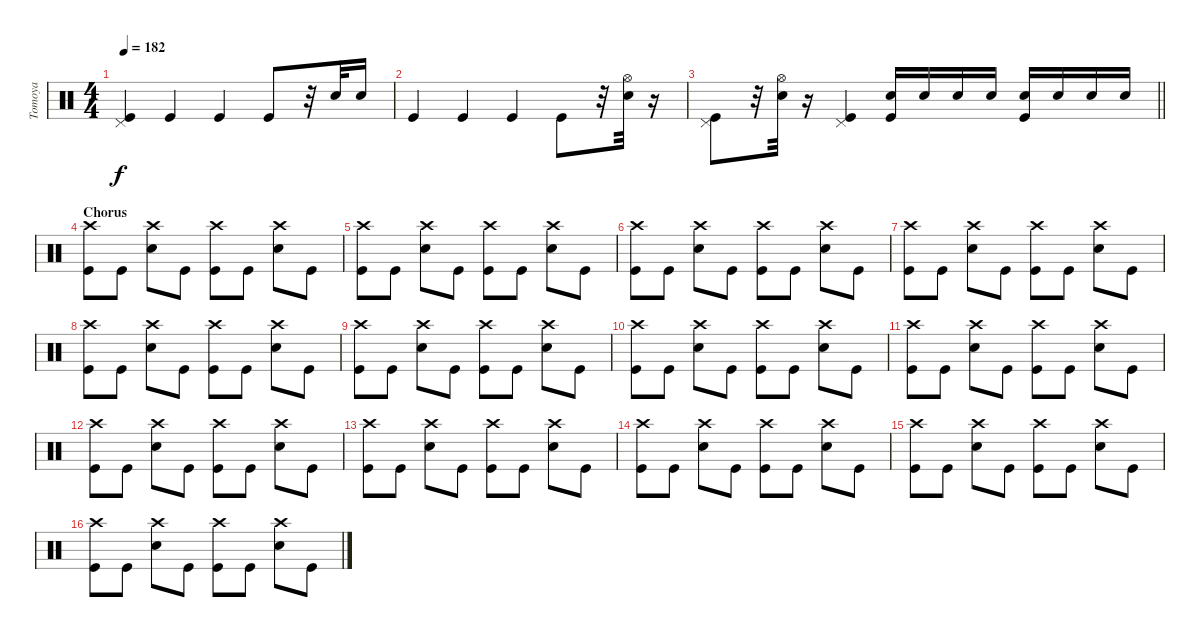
\track ("Tomoya" "Tomoya") {instrument percussion}
\staff {score}
\articulation defaults
\ts (4 4)
\tempo 182
\clef neutral
\ks c
("Pedal Hi-Hat (hit)" "Kick (hit)").4{dy f} "Kick (hit)".4 "Kick (hit)".4 "Kick (hit)".8 r.32 "Snare (hit) 2".32 "Snare (hit) 2".16 |
"Kick (hit)".4 "Kick (hit)".4 "Kick (hit)".4 "Kick (hit)".8 r.32 ("Hi-Hat (open)" "Snare (hit) 2").32 r.16 |
\barLineRight lightlight
("Pedal Hi-Hat (hit)" "Kick (hit)").8 r.32 ("Hi-Hat (open)" "Snare (hit) 2").32 r.16 ("Pedal Hi-Hat (hit)" "Kick (hit)").4 ("Snare (hit) 2" "Kick (hit)").16 "Snare (hit) 2".16 "Snare (hit) 2".16 "Snare (hit) 2".16 ("Snare (hit) 2" "Kick (hit)").16 "Snare (hit) 2".16 "Snare (hit) 2".16 "Snare (hit) 2".16 |
\section ("" "Chorus")
("Crash high (hit)" "Kick (hit)").8 "Kick (hit)".8 ("Crash high (hit)" "Snare (hit) 2").8 "Kick (hit)".8 ("Crash high (hit)" "Kick (hit)").8 "Kick (hit)".8 ("Crash high (hit)" "Snare (hit) 2").8 "Kick (hit)".8 |
("Crash high (hit)" "Kick (hit)").8 "Kick (hit)".8 ("Crash high (hit)" "Snare (hit) 2").8 "Kick (hit)".8 ("Crash high (hit)" "Kick (hit)").8 "Kick (hit)".8 ("Crash high (hit)" "Snare (hit) 2").8 "Kick (hit)".8 |
("Crash high (hit)" "Kick (hit)").8 "Kick (hit)".8 ("Crash high (hit)" "Snare (hit) 2").8 "Kick (hit)".8 ("Crash high (hit)" "Kick (hit)").8 "Kick (hit)".8 ("Crash high (hit)" "Snare (hit) 2").8 "Kick (hit)".8 |
("Crash high (hit)" "Kick (hit)").8 "Kick (hit)".8 ("Crash high (hit)" "Snare (hit) 2").8 "Kick (hit)".8 ("Crash high (hit)" "Kick (hit)").8 "Kick (hit)".8 ("Crash high (hit)" "Snare (hit) 2").8 "Kick (hit)".8 |
("Crash high (hit)" "Kick (hit)").8 "Kick (hit)".8 ("Crash high (hit)" "Snare (hit) 2").8 "Kick (hit)".8 ("Crash high (hit)" "Kick (hit)").8 "Kick (hit)".8 ("Crash high (hit)" "Snare (hit) 2").8 "Kick (hit)".8 |
("Crash high (hit)" "Kick (hit)").8 "Kick (hit)".8 ("Crash high (hit)" "Snare (hit) 2").8 "Kick (hit)".8 ("Crash high (hit)" "Kick (hit)").8 "Kick (hit)".8 ("Crash high (hit)" "Snare (hit) 2").8 "Kick (hit)".8 |
("Crash high (hit)" "Kick (hit)").8 "Kick (hit)".8 ("Crash high (hit)" "Snare (hit) 2").8 "Kick (hit)".8 ("Crash high (hit)" "Kick (hit)").8 "Kick (hit)".8 ("Crash high (hit)" "Snare (hit) 2").8 "Kick (hit)".8 |
("Crash high (hit)" "Kick (hit)").8 "Kick (hit)".8 ("Crash high (hit)" "Snare (hit) 2").8 "Kick (hit)".8 ("Crash high (hit)" "Kick (hit)").8 "Kick (hit)".8 ("Crash high (hit)" "Snare (hit) 2").8 "Kick (hit)".8 |
("Crash high (hit)" "Kick (hit)").8 "Kick (hit)".8 ("Crash high (hit)" "Snare (hit) 2").8 "Kick (hit)".8 ("Crash high (hit)" "Kick (hit)").8 "Kick (hit)".8 ("Crash high (hit)" "Snare (hit) 2").8 "Kick (hit)".8 |
("Crash high (hit)" "Kick (hit)").8 "Kick (hit)".8 ("Crash high (hit)" "Snare (hit) 2").8 "Kick (hit)".8 ("Crash high (hit)" "Kick (hit)").8 "Kick (hit)".8 ("Crash high (hit)" "Snare (hit) 2").8 "Kick (hit)".8 |
("Crash high (hit)" "Kick (hit)").8 "Kick (hit)".8 ("Crash high (hit)" "Snare (hit) 2").8 "Kick (hit)".8 ("Crash high (hit)" "Kick (hit)").8 "Kick (hit)".8 ("Crash high (hit)" "Snare (hit) 2").8 "Kick (hit)".8 |
("Crash high (hit)" "Kick (hit)").8 "Kick (hit)".8 ("Crash high (hit)" "Snare (hit) 2").8 "Kick (hit)".8 ("Crash high (hit)" "Kick (hit)").8 "Kick (hit)".8 ("Crash high (hit)" "Snare (hit) 2").8 "Kick (hit)".8 |
("Crash high (hit)" "Kick (hit)").8 "Kick (hit)".8 ("Crash high (hit)" "Snare (hit) 2").8 "Kick (hit)".8 ("Crash high (hit)" "Kick (hit)").8 "Kick (hit)".8 ("Crash high (hit)" "Snare (hit) 2").8 "Kick (hit)".8
